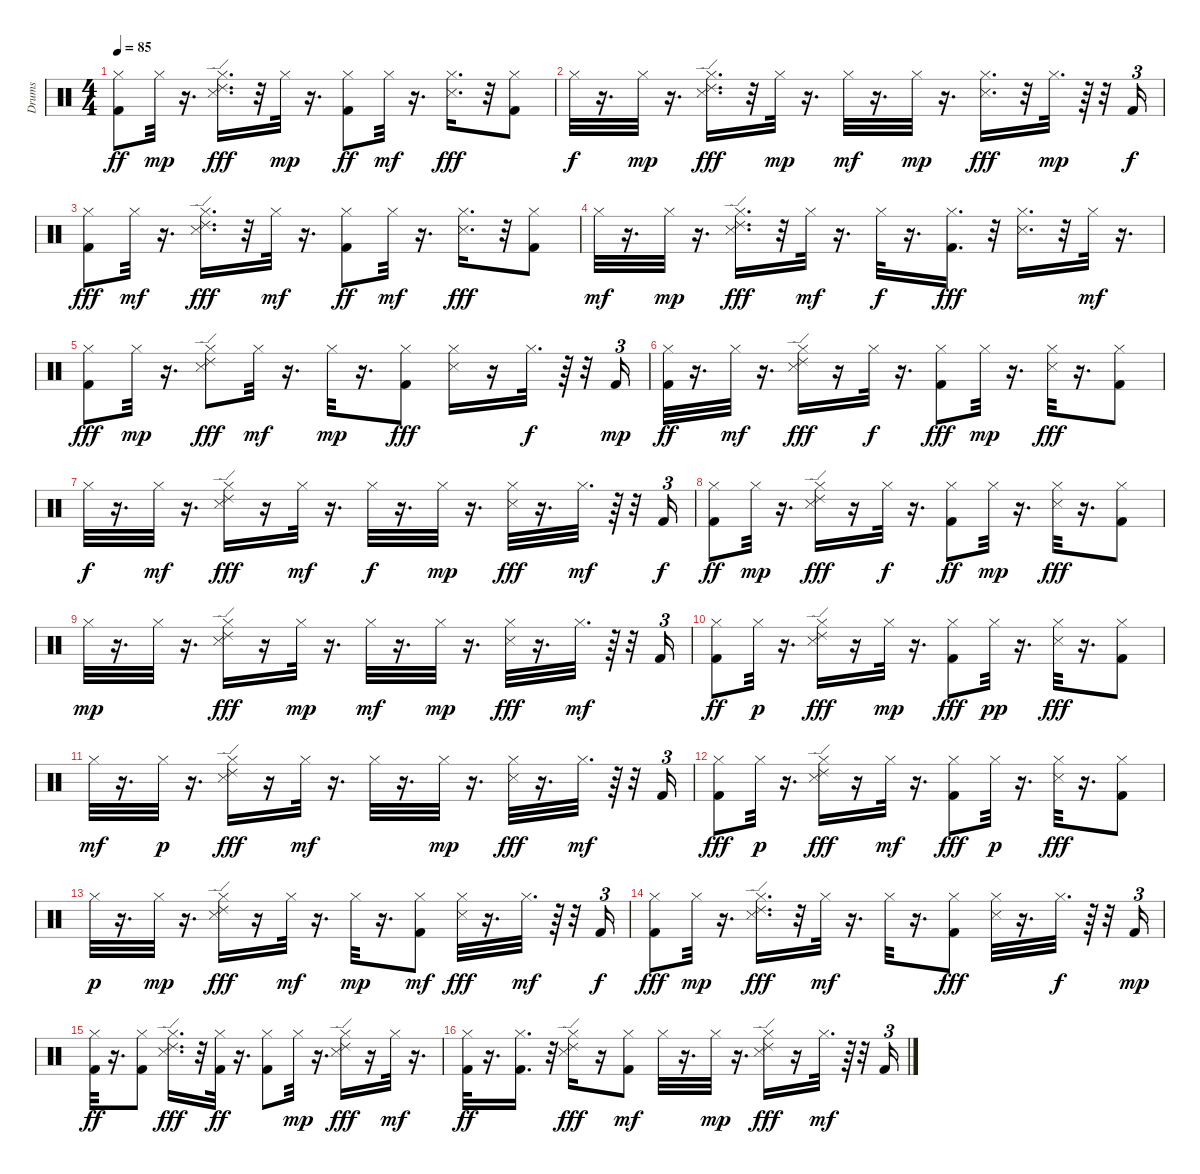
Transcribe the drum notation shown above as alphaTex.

\track ("Drums" "Drums") {instrument percussion}
\staff {score}
\articulation defaults
\ts (4 4)
\tempo 85
\clef neutral
\ks c
("Hi-Hat (closed)" "Kick (hit) 2").8{dy ff} "Hi-Hat (closed)".32{dy mp} r.16{d} ("Ride (edge) 2" "Hi-Hat (closed)" "Snare (side stick) 3").16{d dy fff} r.32 "Hi-Hat (closed)".32{dy mp} r.16{d} ("Hi-Hat (closed)" "Kick (hit) 2").8{dy ff} "Hi-Hat (closed)".32{dy mf} r.16{d} ("Hi-Hat (closed)" "Snare (side stick) 3").16{d dy fff} r.32 ("Hi-Hat (closed)" "Kick (hit) 2").8 |
"Hi-Hat (closed)".32{dy f} r.16{d} "Hi-Hat (closed)".32{dy mp} r.16{d} ("Ride (edge) 2" "Hi-Hat (closed)" "Snare (side stick) 3").16{d dy fff} r.32 "Hi-Hat (closed)".32{dy mp} r.16{d} "Hi-Hat (closed)".32{dy mf} r.16{d} "Hi-Hat (closed)".32{dy mp} r.16{d} ("Hi-Hat (closed)" "Snare (side stick) 3").16{d dy fff} r.32 "Hi-Hat (closed)".32{d dy mp} r.64 r.32 "Kick (hit) 2".16{tu (3 2) dy f} |
("Hi-Hat (closed)" "Kick (hit) 2").8{dy fff} "Hi-Hat (closed)".32{dy mf} r.16{d} ("Ride (edge) 2" "Hi-Hat (closed)" "Snare (side stick) 3").16{d dy fff} r.32 "Hi-Hat (closed)".32{dy mf} r.16{d} ("Hi-Hat (closed)" "Kick (hit) 2").8{dy ff} "Hi-Hat (closed)".32{dy mf} r.16{d} ("Hi-Hat (closed)" "Snare (side stick) 3").16{d dy fff} r.32 ("Hi-Hat (closed)" "Kick (hit) 2").8 |
"Hi-Hat (closed)".32{dy mf} r.16{d} "Hi-Hat (closed)".32{dy mp} r.16{d} ("Ride (edge) 2" "Hi-Hat (closed)" "Snare (side stick) 3").16{d dy fff} r.32 "Hi-Hat (closed)".32{dy mf} r.16{d} "Hi-Hat (closed)".32{dy f} r.16{d} ("Hi-Hat (closed)" "Kick (hit) 2").16{d dy fff} r.32 ("Hi-Hat (closed)" "Snare (side stick) 3").16{d} r.32 "Hi-Hat (closed)".32{dy mf} r.16{d} |
("Hi-Hat (closed)" "Kick (hit) 2").8{dy fff} "Hi-Hat (closed)".32{dy mp} r.16{d} ("Ride (edge) 2" "Hi-Hat (closed)" "Snare (side stick) 3").8{dy fff} "Hi-Hat (closed)".32{dy mf} r.16{d} "Hi-Hat (closed)".32{dy mp} r.16{d} ("Hi-Hat (closed)" "Kick (hit) 2").8{dy fff} ("Hi-Hat (closed)" "Snare (side stick) 3").16 r.16 "Hi-Hat (closed)".32{d dy f} r.64 r.32 "Kick (hit) 2".16{tu (3 2) dy mp} |
("Hi-Hat (closed)" "Kick (hit) 2").32{dy ff} r.16{d} "Hi-Hat (closed)".32{dy mf} r.16{d} ("Ride (edge) 2" "Hi-Hat (closed)" "Snare (side stick) 3").16{dy fff} r.16 "Hi-Hat (closed)".32{dy f} r.16{d} ("Hi-Hat (closed)" "Kick (hit) 2").8{dy fff} "Hi-Hat (closed)".32{dy mp} r.16{d} ("Hi-Hat (closed)" "Snare (side stick) 3").32{dy fff} r.16{d} ("Hi-Hat (closed)" "Kick (hit) 2").8 |
"Hi-Hat (closed)".32{dy f} r.16{d} "Hi-Hat (closed)".32{dy mf} r.16{d} ("Ride (edge) 2" "Hi-Hat (closed)" "Snare (side stick) 3").16{dy fff} r.16 "Hi-Hat (closed)".32{dy mf} r.16{d} "Hi-Hat (closed)".32{dy f} r.16{d} "Hi-Hat (closed)".32{dy mp} r.16{d} ("Hi-Hat (closed)" "Snare (side stick) 3").32{dy fff} r.16{d} "Hi-Hat (closed)".32{d dy mf} r.64 r.32 "Kick (hit) 2".16{tu (3 2) dy f} |
("Hi-Hat (closed)" "Kick (hit) 2").8{dy ff} "Hi-Hat (closed)".32{dy mp} r.16{d} ("Ride (edge) 2" "Hi-Hat (closed)" "Snare (side stick) 3").16{dy fff} r.16 "Hi-Hat (closed)".32{dy f} r.16{d} ("Hi-Hat (closed)" "Kick (hit) 2").8{dy ff} "Hi-Hat (closed)".32{dy mp} r.16{d} ("Hi-Hat (closed)" "Snare (side stick) 3").32{dy fff} r.16{d} ("Hi-Hat (closed)" "Kick (hit) 2").8 |
"Hi-Hat (closed)".32{dy mp} r.16{d} "Hi-Hat (closed)".32 r.16{d} ("Ride (edge) 2" "Hi-Hat (closed)" "Snare (side stick) 3").16{dy fff} r.16 "Hi-Hat (closed)".32{dy mp} r.16{d} "Hi-Hat (closed)".32{dy mf} r.16{d} "Hi-Hat (closed)".32{dy mp} r.16{d} ("Hi-Hat (closed)" "Snare (side stick) 3").32{dy fff} r.16{d} "Hi-Hat (closed)".32{d dy mf} r.64 r.32 "Kick (hit) 2".16{tu (3 2)} |
("Hi-Hat (closed)" "Kick (hit) 2").8{dy ff} "Hi-Hat (closed)".32{dy p} r.16{d} ("Ride (edge) 2" "Hi-Hat (closed)" "Snare (side stick) 3").16{dy fff} r.16 "Hi-Hat (closed)".32{dy mp} r.16{d} ("Hi-Hat (closed)" "Kick (hit) 2").8{dy fff} "Hi-Hat (closed)".32{dy pp} r.16{d} ("Hi-Hat (closed)" "Snare (side stick) 3").32{dy fff} r.16{d} ("Hi-Hat (closed)" "Kick (hit) 2").8 |
"Hi-Hat (closed)".32{dy mf} r.16{d} "Hi-Hat (closed)".32{dy p} r.16{d} ("Ride (edge) 2" "Hi-Hat (closed)" "Snare (side stick) 3").16{dy fff} r.16 "Hi-Hat (closed)".32{dy mf} r.16{d} "Hi-Hat (closed)".32 r.16{d} "Hi-Hat (closed)".32{dy mp} r.16{d} ("Hi-Hat (closed)" "Snare (side stick) 3").32{dy fff} r.16{d} "Hi-Hat (closed)".32{d dy mf} r.64 r.32 "Kick (hit) 2".16{tu (3 2)} |
("Hi-Hat (closed)" "Kick (hit) 2").8{dy fff} "Hi-Hat (closed)".32{dy p} r.16{d} ("Ride (edge) 2" "Hi-Hat (closed)" "Snare (side stick) 3").16{dy fff} r.16 "Hi-Hat (closed)".32{dy mf} r.16{d} ("Hi-Hat (closed)" "Kick (hit) 2").8{dy fff} "Hi-Hat (closed)".32{dy p} r.16{d} ("Hi-Hat (closed)" "Snare (side stick) 3").32{dy fff} r.16{d} ("Hi-Hat (closed)" "Kick (hit) 2").8 |
"Hi-Hat (closed)".32{dy p} r.16{d} "Hi-Hat (closed)".32{dy mp} r.16{d} ("Ride (edge) 2" "Hi-Hat (closed)" "Snare (side stick) 3").16{dy fff} r.16 "Hi-Hat (closed)".32{dy mf} r.16{d} "Hi-Hat (closed)".32{dy mp} r.16{d} ("Hi-Hat (closed)" "Kick (hit) 2").8{dy mf} ("Hi-Hat (closed)" "Snare (side stick) 3").32{dy fff} r.16{d} "Hi-Hat (closed)".32{d dy mf} r.64 r.32 "Kick (hit) 2".16{tu (3 2) dy f} |
("Hi-Hat (closed)" "Kick (hit) 2").8{dy fff} "Hi-Hat (closed)".32{dy mp} r.16{d} ("Ride (edge) 2" "Hi-Hat (closed)" "Snare (side stick) 3").16{d dy fff} r.32 "Hi-Hat (closed)".32{dy mf} r.16{d} "Hi-Hat (closed)".32 r.16{d} ("Hi-Hat (closed)" "Kick (hit) 2").8{dy fff} ("Hi-Hat (closed)" "Snare (side stick) 3").32 r.16{d} "Hi-Hat (closed)".32{d dy f} r.64 r.32 "Kick (hit) 2".16{tu (3 2) dy mp} |
("Hi-Hat (closed)" "Kick (hit) 2").32{dy ff} r.16{d} ("Hi-Hat (closed)" "Kick (hit) 2").8 ("Ride (edge) 2" "Hi-Hat (closed)" "Snare (side stick) 3").16{d dy fff} r.32 ("Hi-Hat (closed)" "Kick (hit) 2").32{dy ff} r.16{d} ("Hi-Hat (closed)" "Kick (hit) 2").8 "Hi-Hat (closed)".32{dy mp} r.16{d} ("Ride (edge) 2" "Hi-Hat (closed)" "Snare (side stick) 3").16{dy fff} r.16 "Hi-Hat (closed)".32{dy mf} r.16{d} |
("Hi-Hat (closed)" "Kick (hit) 2").32{dy ff} r.16{d} ("Hi-Hat (closed)" "Kick (hit) 2").16{d} r.32 ("Ride (edge) 2" "Hi-Hat (closed)" "Snare (side stick) 3").16{dy fff} r.16 ("Hi-Hat (closed)" "Kick (hit) 2").8{dy mf} "Hi-Hat (closed)".32 r.16{d} "Hi-Hat (closed)".32{dy mp} r.16{d} ("Ride (edge) 2" "Hi-Hat (closed)" "Snare (side stick) 3").16{dy fff} r.16 "Hi-Hat (closed)".32{d dy mf} r.64 r.32 "Kick (hit) 2".16{tu (3 2)}
